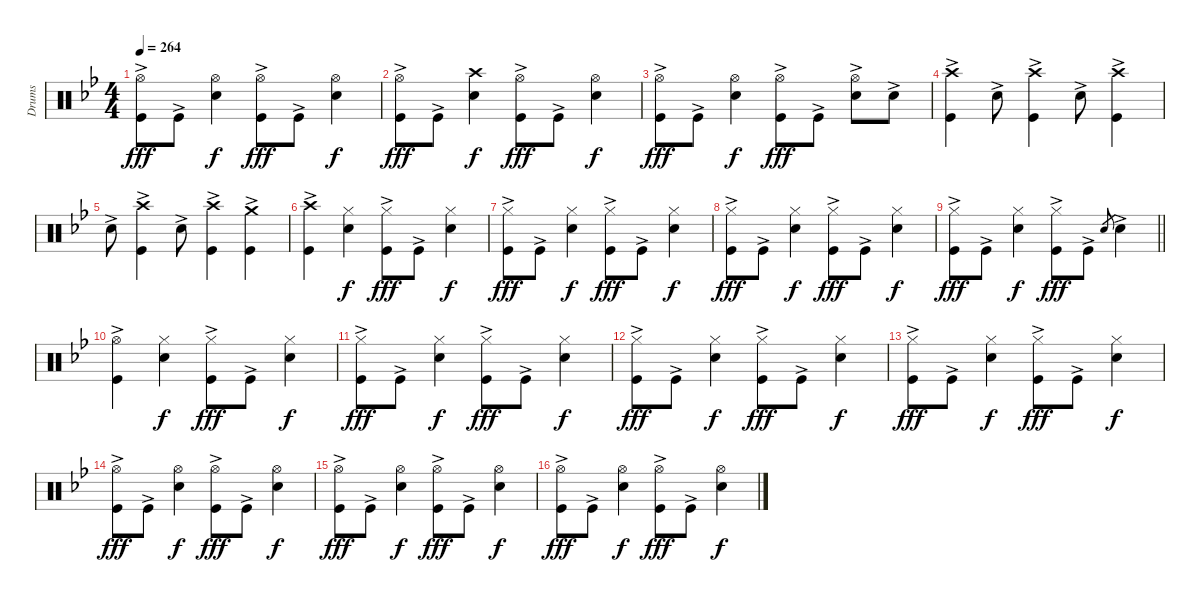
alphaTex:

\track ("Drums" "Drums") {instrument percussion}
\staff {score}
\articulation defaults
\ts (4 4)
\tempo 264
\clef neutral
\ks gminor
("Hi-Hat (open)" "Kick (hit)"{ac}).8{dy fff} "Kick (hit)"{ac}.8 ("Hi-Hat (open)" "Snare (hit) 2").4{dy f} ("Hi-Hat (open)" "Kick (hit)"{ac}).8{dy fff} "Kick (hit)"{ac}.8 ("Hi-Hat (open)" "Snare (hit) 2").4{dy f} |
("Hi-Hat (open)" "Kick (hit)"{ac}).8{dy fff} "Kick (hit)"{ac}.8 ("Crash high (hit)" "Snare (hit) 2").4{dy f} ("Hi-Hat (open)" "Kick (hit)"{ac}).8{dy fff} "Kick (hit)"{ac}.8 ("Hi-Hat (open)" "Snare (hit) 2").4{dy f} |
("Hi-Hat (open)" "Kick (hit)"{ac}).8{dy fff} "Kick (hit)"{ac}.8 ("Hi-Hat (open)" "Snare (hit) 2").4{dy f} ("Hi-Hat (open)" "Kick (hit)"{ac}).8{dy fff} "Kick (hit)"{ac}.8 ("Hi-Hat (open)" "Snare (hit) 2"{ac}).8 "Snare (hit) 2"{ac}.8 |
("Crash high (hit)" "Kick (hit)"{ac}).4 "Snare (hit) 2"{ac}.8 ("Crash high (hit)" "Kick (hit)"{ac}).4 "Snare (hit) 2"{ac}.8 ("Crash high (hit)" "Kick (hit)"{ac}).4 |
"Snare (hit) 2"{ac}.8 ("Crash high (hit)" "Kick (hit)"{ac}).4 "Snare (hit) 2"{ac}.8 ("Crash high (hit)" "Kick (hit)"{ac}).4 ("Crash medium (hit)" "Kick (hit)"{ac}).4 |
("Crash high (hit)" "Kick (hit)"{ac}).4 ("Hi-Hat (closed)" "Snare (hit) 2").4{dy f} ("Hi-Hat (closed)" "Kick (hit)"{ac}).8{dy fff} "Kick (hit)"{ac}.8 ("Hi-Hat (closed)" "Snare (hit) 2").4{dy f} |
("Hi-Hat (closed)" "Kick (hit)"{ac}).8{dy fff} "Kick (hit)"{ac}.8 ("Hi-Hat (closed)" "Snare (hit) 2").4{dy f} ("Hi-Hat (closed)" "Kick (hit)"{ac}).8{dy fff} "Kick (hit)"{ac}.8 ("Hi-Hat (closed)" "Snare (hit) 2").4{dy f} |
("Hi-Hat (closed)" "Kick (hit)"{ac}).8{dy fff} "Kick (hit)"{ac}.8 ("Hi-Hat (closed)" "Snare (hit) 2").4{dy f} ("Hi-Hat (closed)" "Kick (hit)"{ac}).8{dy fff} "Kick (hit)"{ac}.8 ("Hi-Hat (closed)" "Snare (hit) 2").4{dy f} |
\barLineRight lightlight
("Hi-Hat (closed)" "Kick (hit)"{ac}).8{dy fff} "Kick (hit)"{ac}.8 ("Hi-Hat (closed)" "Snare (hit) 2").4{dy f} ("Hi-Hat (closed)" "Kick (hit)"{ac}).8{dy fff} "Kick (hit)"{ac}.8 "Snare (hit) 2".8{gr} "Snare (hit) 2"{ac}.4 |
("Hi-Hat (open)" "Kick (hit)"{ac}).4 ("Hi-Hat (closed)" "Snare (hit) 2").4{dy f} ("Hi-Hat (closed)" "Kick (hit)"{ac}).8{dy fff} "Kick (hit)"{ac}.8 ("Hi-Hat (closed)" "Snare (hit) 2").4{dy f} |
("Hi-Hat (closed)" "Kick (hit)"{ac}).8{dy fff} "Kick (hit)"{ac}.8 ("Hi-Hat (closed)" "Snare (hit) 2").4{dy f} ("Hi-Hat (closed)" "Kick (hit)"{ac}).8{dy fff} "Kick (hit)"{ac}.8 ("Hi-Hat (closed)" "Snare (hit) 2").4{dy f} |
("Hi-Hat (closed)" "Kick (hit)"{ac}).8{dy fff} "Kick (hit)"{ac}.8 ("Hi-Hat (closed)" "Snare (hit) 2").4{dy f} ("Hi-Hat (closed)" "Kick (hit)"{ac}).8{dy fff} "Kick (hit)"{ac}.8 ("Hi-Hat (closed)" "Snare (hit) 2").4{dy f} |
("Hi-Hat (closed)" "Kick (hit)"{ac}).8{dy fff} "Kick (hit)"{ac}.8 ("Hi-Hat (closed)" "Snare (hit) 2").4{dy f} ("Hi-Hat (closed)" "Kick (hit)"{ac}).8{dy fff} "Kick (hit)"{ac}.8 ("Hi-Hat (closed)" "Snare (hit) 2").4{dy f} |
("Hi-Hat (open)" "Kick (hit)"{ac}).8{dy fff} "Kick (hit)"{ac}.8 ("Hi-Hat (open)" "Snare (hit) 2").4{dy f} ("Hi-Hat (open)" "Kick (hit)"{ac}).8{dy fff} "Kick (hit)"{ac}.8 ("Hi-Hat (open)" "Snare (hit) 2").4{dy f} |
("Hi-Hat (open)" "Kick (hit)"{ac}).8{dy fff} "Kick (hit)"{ac}.8 ("Hi-Hat (open)" "Snare (hit) 2").4{dy f} ("Hi-Hat (open)" "Kick (hit)"{ac}).8{dy fff} "Kick (hit)"{ac}.8 ("Hi-Hat (open)" "Snare (hit) 2").4{dy f} |
("Hi-Hat (open)" "Kick (hit)"{ac}).8{dy fff} "Kick (hit)"{ac}.8 ("Hi-Hat (open)" "Snare (hit) 2").4{dy f} ("Hi-Hat (open)" "Kick (hit)"{ac}).8{dy fff} "Kick (hit)"{ac}.8 ("Hi-Hat (open)" "Snare (hit) 2").4{dy f}
